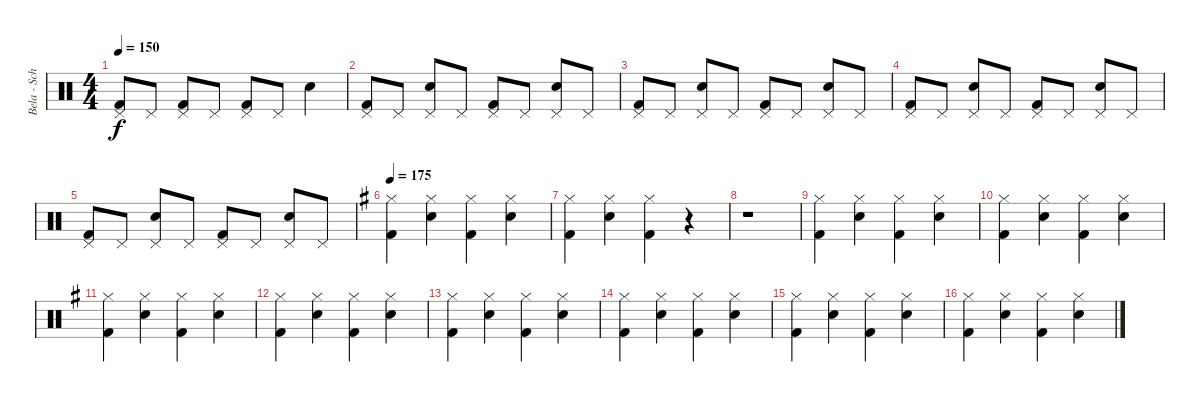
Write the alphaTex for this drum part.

\track ("Bela - Schlagzeug" "Bela - Sch") {instrument percussion}
\staff {score}
\articulation defaults
\ts (4 4)
\tempo 150
\clef neutral
\ks c
("Pedal Hi-Hat (hit)" "Kick (hit) 2").8{dy f} "Pedal Hi-Hat (hit)".8 ("Pedal Hi-Hat (hit)" "Kick (hit) 2").8 "Pedal Hi-Hat (hit)".8 ("Pedal Hi-Hat (hit)" "Kick (hit) 2").8 "Pedal Hi-Hat (hit)".8 "Snare (hit) 2".4 |
("Pedal Hi-Hat (hit)" "Kick (hit) 2").8 "Pedal Hi-Hat (hit)".8 ("Pedal Hi-Hat (hit)" "Snare (hit) 2").8 "Pedal Hi-Hat (hit)".8 ("Pedal Hi-Hat (hit)" "Kick (hit) 2").8 "Pedal Hi-Hat (hit)".8 ("Pedal Hi-Hat (hit)" "Snare (hit) 2").8 "Pedal Hi-Hat (hit)".8 |
("Pedal Hi-Hat (hit)" "Kick (hit) 2").8 "Pedal Hi-Hat (hit)".8 ("Pedal Hi-Hat (hit)" "Snare (hit) 2").8 "Pedal Hi-Hat (hit)".8 ("Pedal Hi-Hat (hit)" "Kick (hit) 2").8 "Pedal Hi-Hat (hit)".8 ("Pedal Hi-Hat (hit)" "Snare (hit) 2").8 "Pedal Hi-Hat (hit)".8 |
("Pedal Hi-Hat (hit)" "Kick (hit) 2").8 "Pedal Hi-Hat (hit)".8 ("Pedal Hi-Hat (hit)" "Snare (hit) 2").8 "Pedal Hi-Hat (hit)".8 ("Pedal Hi-Hat (hit)" "Kick (hit) 2").8 "Pedal Hi-Hat (hit)".8 ("Pedal Hi-Hat (hit)" "Snare (hit) 2").8 "Pedal Hi-Hat (hit)".8 |
("Pedal Hi-Hat (hit)" "Kick (hit) 2").8 "Pedal Hi-Hat (hit)".8 ("Pedal Hi-Hat (hit)" "Snare (hit) 2").8 "Pedal Hi-Hat (hit)".8 ("Pedal Hi-Hat (hit)" "Kick (hit) 2").8 "Pedal Hi-Hat (hit)".8 ("Pedal Hi-Hat (hit)" "Snare (hit) 2").8 "Pedal Hi-Hat (hit)".8 |
\tempo 175
\ks g
("Hi-Hat (closed)" "Kick (hit) 2").4 ("Hi-Hat (closed)" "Snare (hit) 2").4 ("Hi-Hat (closed)" "Kick (hit) 2").4 ("Hi-Hat (closed)" "Snare (hit) 2").4 |
("Hi-Hat (closed)" "Kick (hit) 2").4 ("Hi-Hat (closed)" "Snare (hit) 2").4 ("Hi-Hat (closed)" "Kick (hit) 2").4 r.4 |
r.1 |
("Hi-Hat (closed)" "Kick (hit) 2").4 ("Hi-Hat (closed)" "Snare (hit) 2").4 ("Hi-Hat (closed)" "Kick (hit) 2").4 ("Hi-Hat (closed)" "Snare (hit) 2").4 |
("Hi-Hat (closed)" "Kick (hit) 2").4 ("Hi-Hat (closed)" "Snare (hit) 2").4 ("Hi-Hat (closed)" "Kick (hit) 2").4 ("Hi-Hat (closed)" "Snare (hit) 2").4 |
("Hi-Hat (closed)" "Kick (hit) 2").4 ("Hi-Hat (closed)" "Snare (hit) 2").4 ("Hi-Hat (closed)" "Kick (hit) 2").4 ("Hi-Hat (closed)" "Snare (hit) 2").4 |
("Hi-Hat (closed)" "Kick (hit) 2").4 ("Hi-Hat (closed)" "Snare (hit) 2").4 ("Hi-Hat (closed)" "Kick (hit) 2").4 ("Hi-Hat (closed)" "Snare (hit) 2").4 |
("Hi-Hat (closed)" "Kick (hit) 2").4 ("Hi-Hat (closed)" "Snare (hit) 2").4 ("Hi-Hat (closed)" "Kick (hit) 2").4 ("Hi-Hat (closed)" "Snare (hit) 2").4 |
("Hi-Hat (closed)" "Kick (hit) 2").4 ("Hi-Hat (closed)" "Snare (hit) 2").4 ("Hi-Hat (closed)" "Kick (hit) 2").4 ("Hi-Hat (closed)" "Snare (hit) 2").4 |
("Hi-Hat (closed)" "Kick (hit) 2").4 ("Hi-Hat (closed)" "Snare (hit) 2").4 ("Hi-Hat (closed)" "Kick (hit) 2").4 ("Hi-Hat (closed)" "Snare (hit) 2").4 |
("Hi-Hat (closed)" "Kick (hit) 2").4 ("Hi-Hat (closed)" "Snare (hit) 2").4 ("Hi-Hat (closed)" "Kick (hit) 2").4 ("Hi-Hat (closed)" "Snare (hit) 2").4
